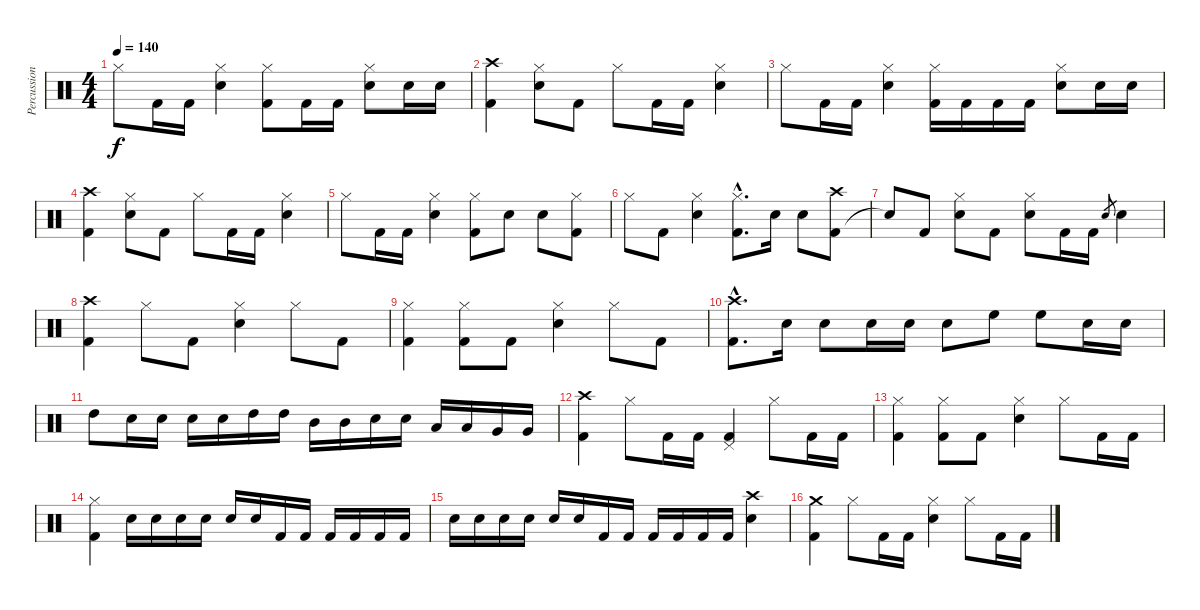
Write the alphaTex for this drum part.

\track ("Percussion" "Percussion") {instrument percussion}
\staff {score}
\articulation defaults
\ts (4 4)
\tempo 140
\clef neutral
\ks c "Hi-Hat (closed)".8{dy f} "Kick (hit) 2".16 "Kick (hit) 2".16
("Snare (hit) 2" "Hi-Hat (closed)").4 ("Kick (hit) 2" "Hi-Hat (closed)").8 "Kick (hit) 2".16 "Kick (hit) 2".16 ("Snare (hit) 2" "Hi-Hat (closed)").8 "Snare (hit) 2".16 "Snare (hit) 2".16 |
("Kick (hit) 2" "Crash high (hit)").4 ("Snare (hit) 2" "Hi-Hat (closed)").8 "Kick (hit) 2".8 "Hi-Hat (closed)".8 "Kick (hit) 2".16 "Kick (hit) 2".16 ("Snare (hit) 2" "Hi-Hat (closed)").4 |
"Hi-Hat (closed)".8 "Kick (hit) 2".16 "Kick (hit) 2".16 ("Snare (hit) 2" "Hi-Hat (closed)").4 ("Kick (hit) 2" "Hi-Hat (closed)").16 "Kick (hit) 2".16 "Kick (hit) 2".16 "Kick (hit) 2".16 ("Snare (hit) 2" "Hi-Hat (closed)").8 "Snare (hit) 2".16 "Snare (hit) 2".16 |
("Kick (hit) 2" "Crash high (hit)").4 ("Snare (hit) 2" "Hi-Hat (closed)").8 "Kick (hit) 2".8 "Hi-Hat (closed)".8 "Kick (hit) 2".16 "Kick (hit) 2".16 ("Snare (hit) 2" "Hi-Hat (closed)").4 |
"Hi-Hat (closed)".8 "Kick (hit) 2".16 "Kick (hit) 2".16 ("Snare (hit) 2" "Hi-Hat (closed)").4 ("Kick (hit) 2" "Hi-Hat (closed)").8 "Snare (hit) 2".8 "Snare (hit) 2".8 ("Kick (hit) 2" "Hi-Hat (closed)").8 |
"Hi-Hat (closed)".8 "Kick (hit) 2".8 ("Snare (hit) 2" "Hi-Hat (closed)").4 ("Kick (hit) 2"{hac} "Hi-Hat (closed)"{hac}).8{d} "Snare (hit) 2".16 "Snare (hit) 2".8 ("Kick (hit) 2" "Crash high (hit)").8 |
"Snare (hit)"{t}.8 "Kick (hit) 2".8 ("Snare (hit) 2" "Hi-Hat (closed)").8 "Kick (hit) 2".8 ("Snare (hit) 2" "Hi-Hat (closed)").8 "Kick (hit) 2".16 "Kick (hit) 2".16 "Snare (hit) 2".8{gr} "Snare (hit) 2".4 |
("Kick (hit) 2" "Crash high (hit)").4 "Hi-Hat (closed)".8 "Kick (hit) 2".8 ("Snare (hit) 2" "Hi-Hat (closed)").4 "Hi-Hat (closed)".8 "Kick (hit) 2".8 |
("Kick (hit) 2" "Hi-Hat (closed)").4 ("Kick (hit) 2" "Hi-Hat (closed)").8 "Kick (hit) 2".8 ("Snare (hit) 2" "Hi-Hat (closed)").4 "Hi-Hat (closed)".8 "Kick (hit) 2".8 |
("Kick (hit) 2"{hac} "Crash high (hit)"{hac}).8{d} "Snare (hit) 2".16 "Snare (hit) 2".8 "Snare (hit) 2".16 "Snare (hit) 2".16 "Snare (hit) 2".8 "High Floor Tom (hit)".8 "High Floor Tom (hit)".8 "Snare (hit) 2".16 "Snare (hit) 2".16 |
"High Tom (hit)".8 "Snare (hit) 2".16 "Snare (hit) 2".16 "Snare (hit) 2".16 "Snare (hit) 2".16 "High Tom (hit)".16 "High Tom (hit)".16 "Mid Tom (hit)".16 "Mid Tom (hit)".16 "Snare (hit) 2".16 "Snare (hit) 2".16 "Low Tom (hit)".16 "Low Tom (hit)".16 "Very Low Tom (hit)".16 "Very Low Tom (hit)".16 |
("Kick (hit) 2" "Crash high (hit)").4 "Hi-Hat (closed)".8 "Kick (hit) 2".16 "Kick (hit) 2".16 ("Kick (hit) 2" "Pedal Hi-Hat (hit)").4 "Hi-Hat (closed)".8 "Kick (hit) 2".16 "Kick (hit) 2".16 |
("Kick (hit) 2" "Hi-Hat (closed)").4 ("Kick (hit) 2" "Hi-Hat (closed)").8 "Kick (hit) 2".8 ("Snare (hit) 2" "Hi-Hat (closed)").4 "Hi-Hat (closed)".8 "Kick (hit) 2".16 "Kick (hit) 2".16 |
("Kick (hit) 2" "Hi-Hat (closed)").4 "Snare (hit) 2".16 "Snare (hit) 2".16 "Snare (hit) 2".16 "Snare (hit) 2".16 "Snare (hit) 2".16 "Snare (hit) 2".16 "Kick (hit) 2".16 "Kick (hit) 2".16 "Kick (hit) 2".16 "Kick (hit) 2".16 "Kick (hit) 2".16 "Kick (hit) 2".16 |
"Snare (hit) 2".16 "Snare (hit) 2".16 "Snare (hit) 2".16 "Snare (hit) 2".16 "Snare (hit) 2".16 "Snare (hit) 2".16 "Kick (hit) 2".16 "Kick (hit) 2".16 "Kick (hit) 2".16 "Kick (hit) 2".16 "Kick (hit) 2".16 "Kick (hit) 2".16 ("Snare (hit) 2" "Crash high (hit)").4 |
("Kick (hit) 2" "Crash medium (hit)").4 "Hi-Hat (closed)".8 "Kick (hit) 2".16 "Kick (hit) 2".16 ("Snare (hit) 2" "Hi-Hat (closed)").4 "Hi-Hat (closed)".8 "Kick (hit) 2".16 "Kick (hit) 2".16
